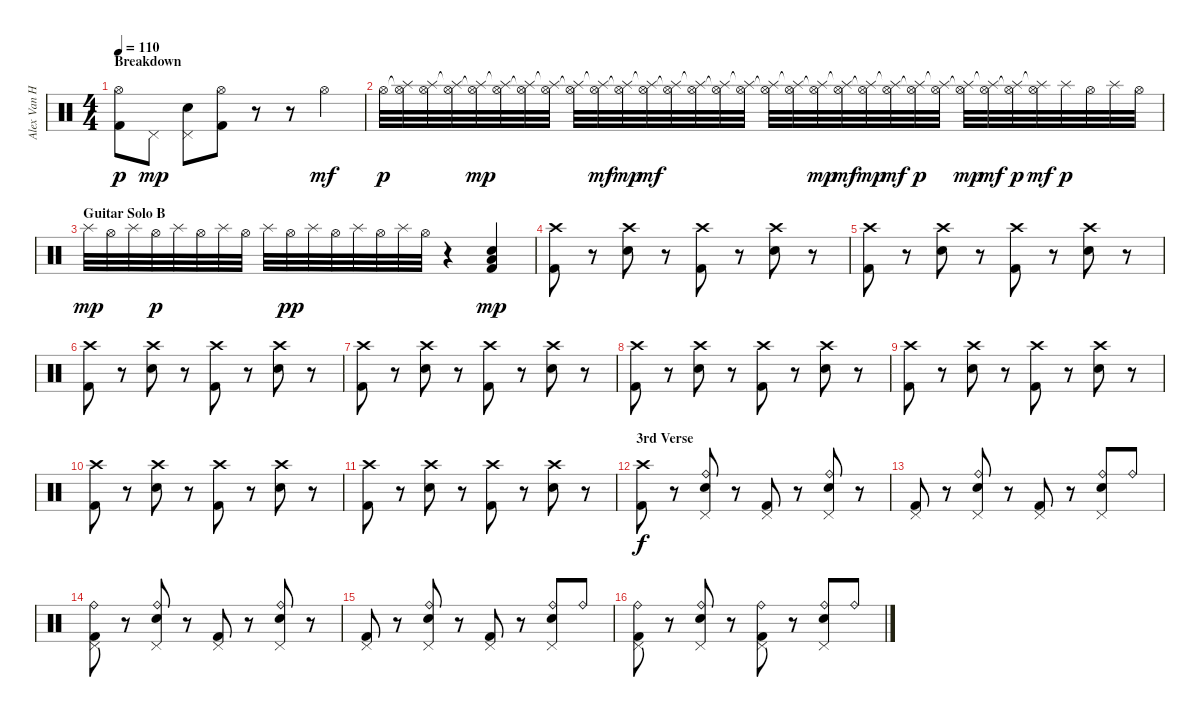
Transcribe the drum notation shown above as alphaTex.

\track ("Alex Van Halen" "Alex Van H") {instrument percussion}
\staff {score}
\articulation defaults
\ts (4 4)
\section ("" "Breakdown")
\tempo 110
\clef neutral
\ks c
("Hi-Hat (open)"{tr (46 16)} "Kick (hit) 2").8{dy p} "Pedal Hi-Hat (hit)".8{dy mp} ("Pedal Hi-Hat (hit)" "Snare (hit) 2").8 ("Hi-Hat (open)" "Kick (hit) 2").8 r.8 r.8 "Hi-Hat (open)"{tr (46 64)}.4{dy mf} |
"Hi-Hat (open)".32{dy p} ("Hi-Hat (open)"{t} "Splash (hit)").32 ("Hi-Hat (open)" "Splash (hit)").32 ("Hi-Hat (open)" "Splash (hit)"{t}).32 ("Hi-Hat (open)"{t} "Splash (hit)").32{dy mp} ("Hi-Hat (open)" "Splash (hit)"{t}).32 ("Hi-Hat (open)"{t} "Splash (hit)").32 ("Hi-Hat (open)" "Splash (hit)"{t}).32 ("Hi-Hat (open)"{t} "Splash (hit)").32 ("Hi-Hat (open)" "Splash (hit)"{t}).32{dy mf} ("Hi-Hat (open)"{t} "Splash (hit)").32{dy mp} ("Hi-Hat (open)" "Splash (hit)"{t}).32{dy mf} ("Hi-Hat (open)"{t} "Splash (hit)").32 ("Hi-Hat (open)" "Splash (hit)"{t}).32 ("Hi-Hat (open)"{t} "Splash (hit)").32 ("Hi-Hat (open)" "Splash (hit)"{t}).32 ("Hi-Hat (open)"{t} "Splash (hit)").32 ("Hi-Hat (open)" "Splash (hit)"{t}).32 ("Hi-Hat (open)"{t} "Splash (hit)").32{dy mp} ("Hi-Hat (open)" "Splash (hit)"{t}).32{dy mf} ("Hi-Hat (open)"{t} "Splash (hit)").32{dy mp} ("Hi-Hat (open)" "Splash (hit)"{t}).32{dy mf} ("Hi-Hat (open)"{t} "Splash (hit)").32{dy p} ("Hi-Hat (open)" "Splash (hit)"{t}).32 ("Hi-Hat (open)"{t} "Splash (hit)").32{dy mp} ("Hi-Hat (open)" "Splash (hit)"{t}).32{dy mf} ("Hi-Hat (open)"{t} "Splash (hit)").32{dy p} ("Hi-Hat (open)" "Splash (hit)"{t}).32{dy mf} "Splash (hit)".32{dy p} "Hi-Hat (open)".32 "Splash (hit)".32 "Hi-Hat (open)".32 |
\section ("" "Guitar Solo B")
"Splash (hit)".32{dy mp} "Hi-Hat (open)".32 "Splash (hit)".32 "Hi-Hat (open)".32{dy p} "Splash (hit)".32 "Hi-Hat (open)".32 "Splash (hit)".32 "Hi-Hat (open)".32 "Splash (hit)".32 "Hi-Hat (open)".32{dy pp} "Splash (hit)".32 "Hi-Hat (open)".32 "Splash (hit)".32 "Hi-Hat (open)".32 "Splash (hit)".32 "Hi-Hat (open)".32 r.4 ("Low Floor Tom (hit)" "Snare (hit) 2" "Kick (hit) 2").4{dy mp} |
("Crash high (hit)" "Kick (hit) 2").8 r.8 ("Crash high (hit)" "Snare (hit) 2").8 r.8 ("Crash high (hit)" "Kick (hit) 2").8 r.8 ("Crash high (hit)" "Snare (hit) 2").8 r.8 |
("Crash high (hit)" "Kick (hit) 2").8 r.8 ("Crash high (hit)" "Snare (hit) 2").8 r.8 ("Crash high (hit)" "Kick (hit) 2").8 r.8 ("Crash high (hit)" "Snare (hit) 2").8 r.8 |
("Crash high (hit)" "Kick (hit) 2").8 r.8 ("Crash high (hit)" "Snare (hit) 2").8 r.8 ("Crash high (hit)" "Kick (hit) 2").8 r.8 ("Crash high (hit)" "Snare (hit) 2").8 r.8 |
("Crash high (hit)" "Kick (hit) 2").8 r.8 ("Crash high (hit)" "Snare (hit) 2").8 r.8 ("Crash high (hit)" "Kick (hit) 2").8 r.8 ("Crash high (hit)" "Snare (hit) 2").8 r.8 |
("Crash high (hit)" "Kick (hit) 2").8 r.8 ("Crash high (hit)" "Snare (hit) 2").8 r.8 ("Crash high (hit)" "Kick (hit) 2").8 r.8 ("Crash high (hit)" "Snare (hit) 2").8 r.8 |
("Crash high (hit)" "Kick (hit) 2").8 r.8 ("Crash high (hit)" "Snare (hit) 2").8 r.8 ("Crash high (hit)" "Kick (hit) 2").8 r.8 ("Crash high (hit)" "Snare (hit) 2").8 r.8 |
("Crash high (hit)" "Kick (hit) 2").8 r.8 ("Crash high (hit)" "Snare (hit) 2").8 r.8 ("Crash high (hit)" "Kick (hit) 2").8 r.8 ("Crash high (hit)" "Snare (hit) 2").8 r.8 |
("Crash high (hit)" "Kick (hit) 2").8 r.8 ("Crash high (hit)" "Snare (hit) 2").8 r.8 ("Crash high (hit)" "Kick (hit) 2").8 r.8 ("Crash high (hit)" "Snare (hit) 2").8 r.8 |
\section ("" "3rd Verse")
("Crash high (hit)" "Kick (hit) 2").8{dy f} r.8 ("Ride (bell)" "Pedal Hi-Hat (hit)" "Snare (hit) 2").8 r.8 ("Pedal Hi-Hat (hit)" "Kick (hit) 2").8 r.8 ("Ride (bell)" "Pedal Hi-Hat (hit)" "Snare (hit) 2").8 r.8 |
("Pedal Hi-Hat (hit)" "Kick (hit) 2").8 r.8 ("Ride (bell)" "Pedal Hi-Hat (hit)" "Snare (hit) 2").8 r.8 ("Pedal Hi-Hat (hit)" "Kick (hit) 2").8 r.8 ("Ride (bell)" "Pedal Hi-Hat (hit)" "Snare (hit) 2").8 "Ride (bell)".8 |
("Ride (bell)" "Pedal Hi-Hat (hit)" "Kick (hit) 2").8 r.8 ("Ride (bell)" "Pedal Hi-Hat (hit)" "Snare (hit) 2").8 r.8 ("Pedal Hi-Hat (hit)" "Kick (hit) 2").8 r.8 ("Ride (bell)" "Pedal Hi-Hat (hit)" "Snare (hit) 2").8 r.8 |
("Pedal Hi-Hat (hit)" "Kick (hit) 2").8 r.8 ("Ride (bell)" "Pedal Hi-Hat (hit)" "Snare (hit) 2").8 r.8 ("Pedal Hi-Hat (hit)" "Kick (hit) 2").8 r.8 ("Ride (bell)" "Pedal Hi-Hat (hit)" "Snare (hit) 2").8 "Ride (bell)".8 |
("Ride (bell)" "Pedal Hi-Hat (hit)" "Kick (hit) 2").8 r.8 ("Ride (bell)" "Pedal Hi-Hat (hit)" "Snare (hit) 2").8 r.8 ("Ride (bell)" "Pedal Hi-Hat (hit)" "Kick (hit) 2").8 r.8 ("Ride (bell)" "Pedal Hi-Hat (hit)" "Snare (hit) 2").8 "Ride (bell)".8
